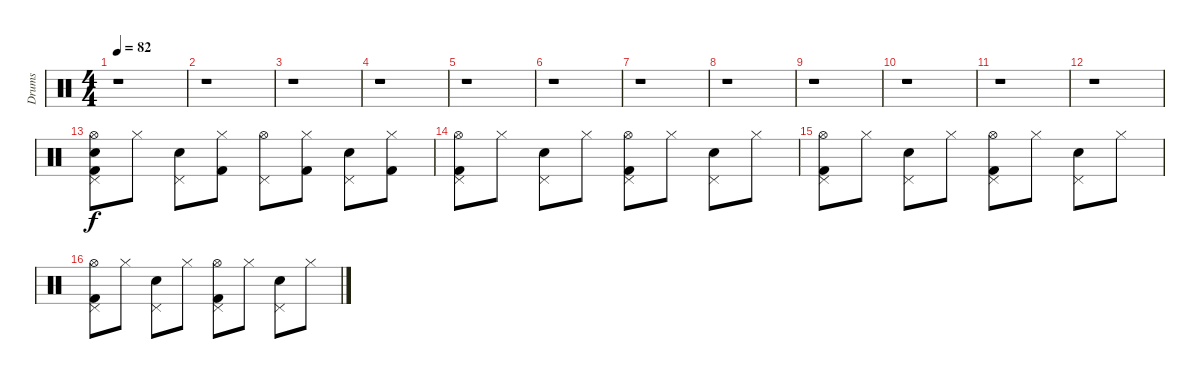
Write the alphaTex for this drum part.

\track ("Drums" "Drums") {instrument percussion}
\staff {score}
\articulation defaults
\ts (4 4)
\tempo 82
\clef neutral
\ks c
r.1{dy f} |
r.1 |
r.1 |
r.1 |
r.1 |
r.1 |
r.1 |
r.1 |
r.1 |
r.1 |
r.1 |
r.1 |
("Snare (hit)" "Hi-Hat (open)" "Pedal Hi-Hat (hit)" "Kick (hit) 2").8 "Hi-Hat (closed)".8 ("Pedal Hi-Hat (hit)" "Snare (hit) 2").8 ("Hi-Hat (closed)" "Kick (hit) 2").8 ("Hi-Hat (open)" "Pedal Hi-Hat (hit)").8 ("Hi-Hat (closed)" "Kick (hit) 2").8 ("Pedal Hi-Hat (hit)" "Snare (hit) 2").8 ("Hi-Hat (closed)" "Kick (hit) 2").8 |
("Hi-Hat (open)" "Pedal Hi-Hat (hit)" "Kick (hit) 2").8 "Hi-Hat (closed)".8 ("Pedal Hi-Hat (hit)" "Snare (hit) 2").8 "Hi-Hat (closed)".8 ("Kick (hit) 2" "Hi-Hat (open)" "Pedal Hi-Hat (hit)").8 "Hi-Hat (closed)".8 ("Pedal Hi-Hat (hit)" "Snare (hit) 2").8 "Hi-Hat (closed)".8 |
("Hi-Hat (open)" "Pedal Hi-Hat (hit)" "Kick (hit) 2").8 "Hi-Hat (closed)".8 ("Pedal Hi-Hat (hit)" "Snare (hit) 2").8 "Hi-Hat (closed)".8 ("Kick (hit) 2" "Hi-Hat (open)" "Pedal Hi-Hat (hit)").8 "Hi-Hat (closed)".8 ("Pedal Hi-Hat (hit)" "Snare (hit) 2").8 "Hi-Hat (closed)".8 |
("Hi-Hat (open)" "Pedal Hi-Hat (hit)" "Kick (hit) 2").8 "Hi-Hat (closed)".8 ("Pedal Hi-Hat (hit)" "Snare (hit) 2").8 "Hi-Hat (closed)".8 ("Kick (hit) 2" "Hi-Hat (open)" "Pedal Hi-Hat (hit)").8 "Hi-Hat (closed)".8 ("Pedal Hi-Hat (hit)" "Snare (hit) 2").8 "Hi-Hat (closed)".8
